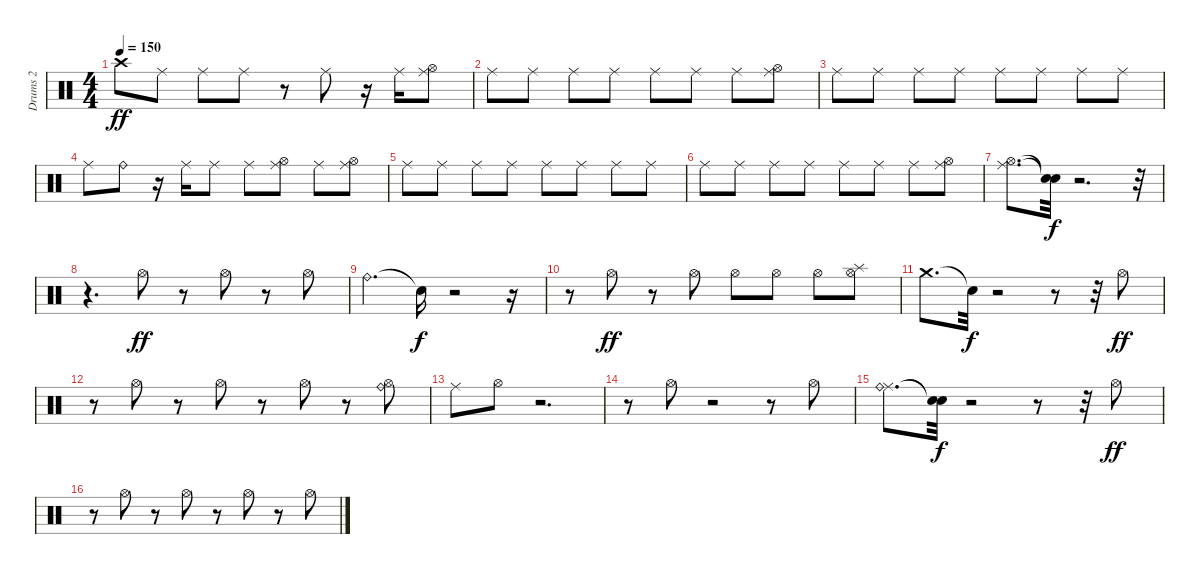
\track ("Drums 2" "Drums 2") {instrument percussion}
\staff {score}
\articulation defaults
\ts (4 4)
\tempo 150
\clef neutral
\ks c "Crash high (hit)".8{dy ff} "Ride (middle)".8 "Ride (middle)".8 "Ride (middle)".8
r.8 "Ride (middle)".8 r.16 "Ride (middle)".16 ("Hi-Hat (open)" "Ride (middle)").8 |
"Ride (middle)".8 "Ride (middle)".8 "Ride (middle)".8 "Ride (middle)".8 "Ride (middle)".8 "Ride (middle)".8 "Ride (middle)".8 ("Hi-Hat (open)" "Ride (middle)").8 |
"Ride (middle)".8 "Ride (middle)".8 "Ride (middle)".8 "Ride (middle)".8 "Ride (middle)".8 "Ride (middle)".8 "Ride (middle)".8 "Ride (middle)".8 |
"Ride (middle)".8 "Ride (bell)".8 r.16 "Ride (middle)".16 "Ride (middle)".8 "Ride (middle)".8 ("Hi-Hat (open)" "Ride (middle)").8 "Ride (middle)".8 ("Hi-Hat (open)" "Ride (middle)").8 |
"Ride (middle)".8 "Ride (middle)".8 "Ride (middle)".8 "Ride (middle)".8 "Ride (middle)".8 "Ride (middle)".8 "Ride (middle)".8 "Ride (middle)".8 |
"Ride (middle)".8 "Ride (middle)".8 "Ride (middle)".8 "Ride (middle)".8 "Ride (middle)".8 "Ride (middle)".8 "Ride (middle)".8 ("Hi-Hat (open)" "Ride (middle)").8 |
("Hi-Hat (open)" "Ride (middle)").8{d} ("Snare (hit)"{t} "Snare (hit)"{t}).32{dy f} r.2{d} r.32 |
r.4{d} "Hi-Hat (open)".8{dy ff} r.8 "Hi-Hat (open)".8 r.8 "Hi-Hat (open)".8 |
"Ride (bell)".4{d} "Snare (hit)"{t}.16{dy f} r.2 r.16 |
r.8 "Hi-Hat (open)".8{dy ff} r.8 "Hi-Hat (open)".8 "Hi-Hat (open)".8 "Hi-Hat (open)".8 "Hi-Hat (open)".8 ("Hi-Hat (open)" "Splash (hit)").8 |
"Crash medium (hit)".8{d} "Snare (hit)"{t}.32{dy f} r.2 r.8 r.32 "Hi-Hat (open)".8{dy ff} |
r.8 "Hi-Hat (open)".8 r.8 "Hi-Hat (open)".8 r.8 "Hi-Hat (open)".8 r.8 ("Hi-Hat (open)" "Ride (bell)").8 |
"Ride (middle)".8 "Hi-Hat (open)".8 r.2{d} |
r.8 "Hi-Hat (open)".8 r.2 r.8 "Hi-Hat (open)".8 |
("Ride (middle)" "Ride (bell)").8{d} ("Snare (hit)"{t} "Snare (hit)"{t}).32{dy f} r.2 r.8 r.32 "Hi-Hat (open)".8{dy ff} |
r.8 "Hi-Hat (open)".8 r.8 "Hi-Hat (open)".8 r.8 "Hi-Hat (open)".8 r.8 "Hi-Hat (open)".8
